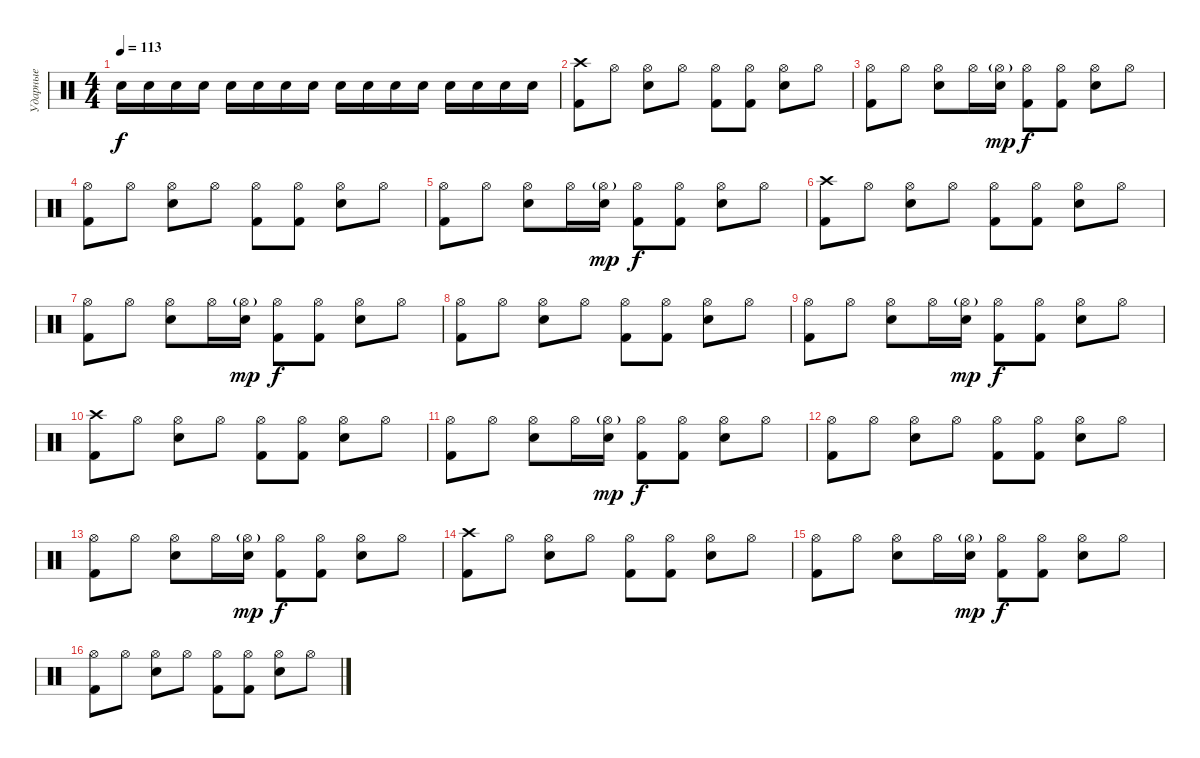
\track ("Ударные" "Ударные") {instrument percussion}
\staff {score}
\articulation defaults
\ts (4 4)
\tempo 113
\clef neutral
\ks c "Snare (hit) 2".16{dy f} "Snare (hit) 2".16 "Snare (hit) 2".16 "Snare (hit) 2".16 "Snare (hit) 2".16 "Snare (hit) 2".16 "Snare (hit) 2".16 "Snare (hit) 2".16 "Snare (hit) 2".16 "Snare (hit) 2".16 "Snare (hit) 2".16 "Snare (hit) 2".16 "Snare (hit) 2".16 "Snare (hit) 2".16 "Snare (hit) 2".16 "Snare (hit) 2".16
|
("Crash high (hit)" "Kick (hit) 2").8 "Hi-Hat (open)".8 ("Hi-Hat (open)" "Snare (hit) 2").8 "Hi-Hat (open)".8 ("Hi-Hat (open)" "Kick (hit) 2").8 ("Hi-Hat (open)" "Kick (hit) 2").8 ("Hi-Hat (open)" "Snare (hit) 2").8 "Hi-Hat (open)".8 |
("Hi-Hat (open)" "Kick (hit) 2").8 "Hi-Hat (open)".8 ("Hi-Hat (open)" "Snare (hit) 2").8 "Hi-Hat (open)".16 ("Hi-Hat (open)"{g} "Snare (hit) 2").16{dy mp} ("Hi-Hat (open)" "Kick (hit) 2").8{dy f} ("Hi-Hat (open)" "Kick (hit) 2").8 ("Hi-Hat (open)" "Snare (hit) 2").8 "Hi-Hat (open)".8 |
("Hi-Hat (open)" "Kick (hit) 2").8 "Hi-Hat (open)".8 ("Hi-Hat (open)" "Snare (hit) 2").8 "Hi-Hat (open)".8 ("Hi-Hat (open)" "Kick (hit) 2").8 ("Hi-Hat (open)" "Kick (hit) 2").8 ("Hi-Hat (open)" "Snare (hit) 2").8 "Hi-Hat (open)".8 |
("Hi-Hat (open)" "Kick (hit) 2").8 "Hi-Hat (open)".8 ("Hi-Hat (open)" "Snare (hit) 2").8 "Hi-Hat (open)".16 ("Hi-Hat (open)"{g} "Snare (hit) 2").16{dy mp} ("Hi-Hat (open)" "Kick (hit) 2").8{dy f} ("Hi-Hat (open)" "Kick (hit) 2").8 ("Hi-Hat (open)" "Snare (hit) 2").8 "Hi-Hat (open)".8 |
("Crash high (hit)" "Kick (hit) 2").8 "Hi-Hat (open)".8 ("Hi-Hat (open)" "Snare (hit) 2").8 "Hi-Hat (open)".8 ("Hi-Hat (open)" "Kick (hit) 2").8 ("Hi-Hat (open)" "Kick (hit) 2").8 ("Hi-Hat (open)" "Snare (hit) 2").8 "Hi-Hat (open)".8 |
("Hi-Hat (open)" "Kick (hit) 2").8 "Hi-Hat (open)".8 ("Hi-Hat (open)" "Snare (hit) 2").8 "Hi-Hat (open)".16 ("Hi-Hat (open)"{g} "Snare (hit) 2").16{dy mp} ("Hi-Hat (open)" "Kick (hit) 2").8{dy f} ("Hi-Hat (open)" "Kick (hit) 2").8 ("Hi-Hat (open)" "Snare (hit) 2").8 "Hi-Hat (open)".8 |
("Hi-Hat (open)" "Kick (hit) 2").8 "Hi-Hat (open)".8 ("Hi-Hat (open)" "Snare (hit) 2").8 "Hi-Hat (open)".8 ("Hi-Hat (open)" "Kick (hit) 2").8 ("Hi-Hat (open)" "Kick (hit) 2").8 ("Hi-Hat (open)" "Snare (hit) 2").8 "Hi-Hat (open)".8 |
("Hi-Hat (open)" "Kick (hit) 2").8 "Hi-Hat (open)".8 ("Hi-Hat (open)" "Snare (hit) 2").8 "Hi-Hat (open)".16 ("Hi-Hat (open)"{g} "Snare (hit) 2").16{dy mp} ("Hi-Hat (open)" "Kick (hit) 2").8{dy f} ("Hi-Hat (open)" "Kick (hit) 2").8 ("Hi-Hat (open)" "Snare (hit) 2").8 "Hi-Hat (open)".8 |
("Crash high (hit)" "Kick (hit) 2").8 "Hi-Hat (open)".8 ("Hi-Hat (open)" "Snare (hit) 2").8 "Hi-Hat (open)".8 ("Hi-Hat (open)" "Kick (hit) 2").8 ("Hi-Hat (open)" "Kick (hit) 2").8 ("Hi-Hat (open)" "Snare (hit) 2").8 "Hi-Hat (open)".8 |
("Hi-Hat (open)" "Kick (hit) 2").8 "Hi-Hat (open)".8 ("Hi-Hat (open)" "Snare (hit) 2").8 "Hi-Hat (open)".16 ("Hi-Hat (open)"{g} "Snare (hit) 2").16{dy mp} ("Hi-Hat (open)" "Kick (hit) 2").8{dy f} ("Hi-Hat (open)" "Kick (hit) 2").8 ("Hi-Hat (open)" "Snare (hit) 2").8 "Hi-Hat (open)".8 |
("Hi-Hat (open)" "Kick (hit) 2").8 "Hi-Hat (open)".8 ("Hi-Hat (open)" "Snare (hit) 2").8 "Hi-Hat (open)".8 ("Hi-Hat (open)" "Kick (hit) 2").8 ("Hi-Hat (open)" "Kick (hit) 2").8 ("Hi-Hat (open)" "Snare (hit) 2").8 "Hi-Hat (open)".8 |
("Hi-Hat (open)" "Kick (hit) 2").8 "Hi-Hat (open)".8 ("Hi-Hat (open)" "Snare (hit) 2").8 "Hi-Hat (open)".16 ("Hi-Hat (open)"{g} "Snare (hit) 2").16{dy mp} ("Hi-Hat (open)" "Kick (hit) 2").8{dy f} ("Hi-Hat (open)" "Kick (hit) 2").8 ("Hi-Hat (open)" "Snare (hit) 2").8 "Hi-Hat (open)".8 |
("Crash high (hit)" "Kick (hit) 2").8 "Hi-Hat (open)".8 ("Hi-Hat (open)" "Snare (hit) 2").8 "Hi-Hat (open)".8 ("Hi-Hat (open)" "Kick (hit) 2").8 ("Hi-Hat (open)" "Kick (hit) 2").8 ("Hi-Hat (open)" "Snare (hit) 2").8 "Hi-Hat (open)".8 |
("Hi-Hat (open)" "Kick (hit) 2").8 "Hi-Hat (open)".8 ("Hi-Hat (open)" "Snare (hit) 2").8 "Hi-Hat (open)".16 ("Hi-Hat (open)"{g} "Snare (hit) 2").16{dy mp} ("Hi-Hat (open)" "Kick (hit) 2").8{dy f} ("Hi-Hat (open)" "Kick (hit) 2").8 ("Hi-Hat (open)" "Snare (hit) 2").8 "Hi-Hat (open)".8 |
("Hi-Hat (open)" "Kick (hit) 2").8 "Hi-Hat (open)".8 ("Hi-Hat (open)" "Snare (hit) 2").8 "Hi-Hat (open)".8 ("Hi-Hat (open)" "Kick (hit) 2").8 ("Hi-Hat (open)" "Kick (hit) 2").8 ("Hi-Hat (open)" "Snare (hit) 2").8 "Hi-Hat (open)".8
